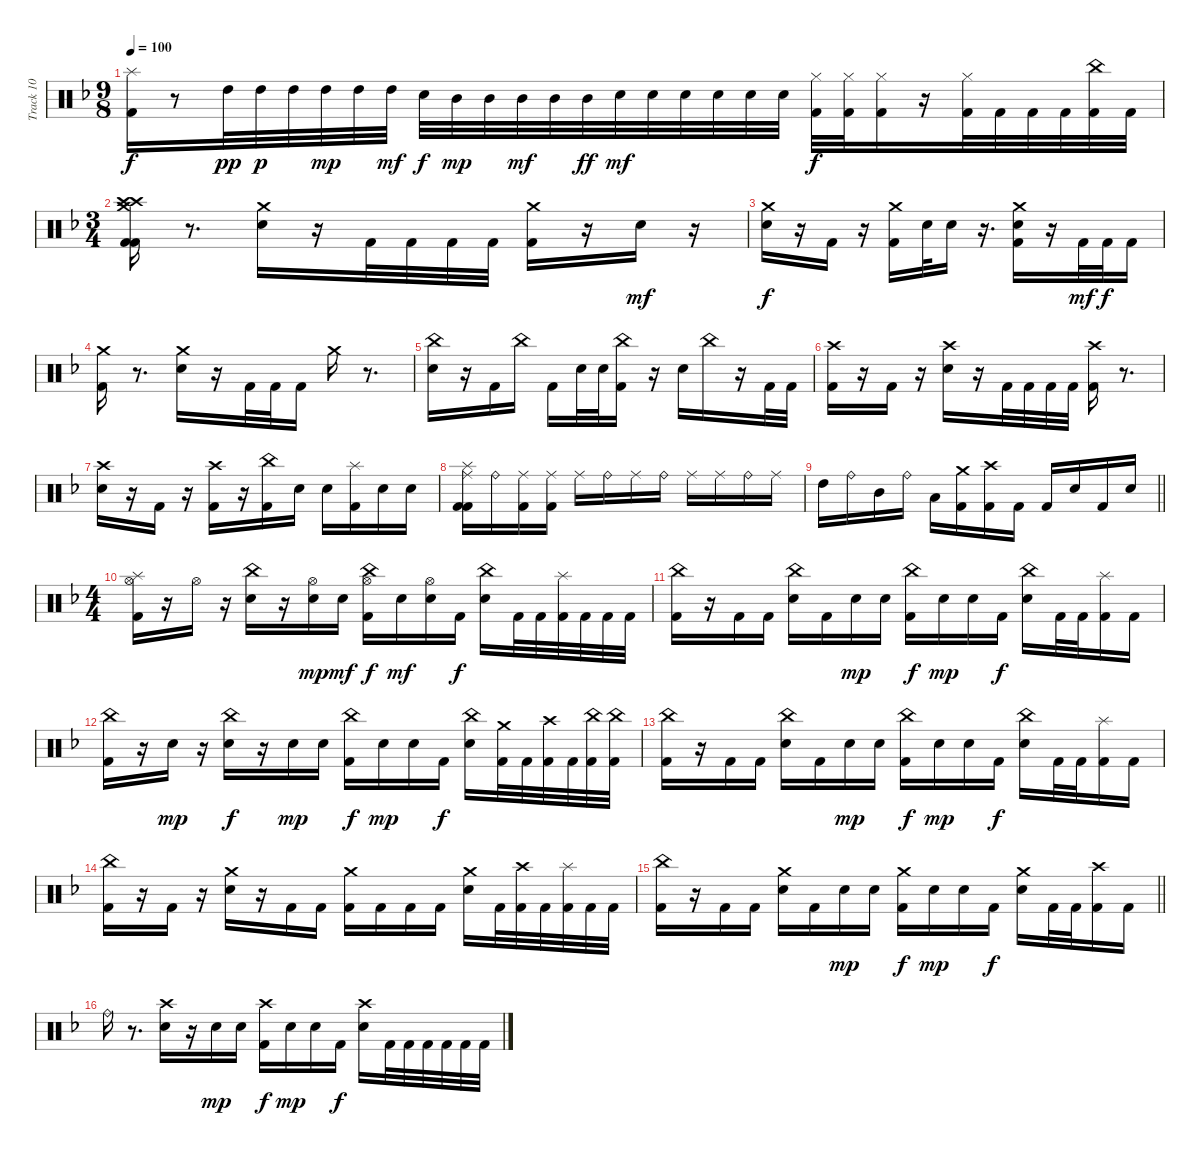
\track ("Track 10" "Track 10") {instrument percussion}
\staff {score}
\articulation defaults
\ts (9 8)
\tempo 100
\clef neutral
\ks f
("Kick (hit) 2" "Splash (hit)").16{dy f} r.8 "High Tom (hit)".32{dy pp} "High Tom (hit)".32{dy p} "High Tom (hit)".32 "High Tom (hit)".32{dy mp} "High Tom (hit)".32 "High Tom (hit)".32{dy mf} "Snare (hit) 2".32{dy f} "Mid Tom (hit)".32{dy mp} "Mid Tom (hit)".32 "Mid Tom (hit)".32{dy mf} "Mid Tom (hit)".32 "Mid Tom (hit)".32{dy ff} "Snare (hit) 2".32{dy mf} "Snare (hit) 2".32 "Snare (hit) 2".32 "Snare (hit) 2".32 "Snare (hit) 2".32 "Snare (hit) 2".32 ("Kick (hit) 2" "Hi-Hat (closed)").32{dy f} ("Kick (hit) 2" "Hi-Hat (closed)").32 ("Kick (hit) 2" "Hi-Hat (closed)").16 r.16 ("Kick (hit) 2" "Hi-Hat (closed)").32 "Kick (hit) 2".32 "Kick (hit) 2".32 "Kick (hit) 2".32 ("Kick (hit) 2" "China (hit)").32 "Kick (hit) 2".32 |
\ts (3 4)
("Kick (hit) 2" "Kick (hit) 2" "Crash high (hit)" "Crash high (hit)" "Crash medium (hit)").16 r.8{d} ("Snare (hit) 2" "Crash medium (hit)").16 r.16 "Kick (hit) 2".32 "Kick (hit) 2".32 "Kick (hit) 2".32 "Kick (hit) 2".32 ("Kick (hit) 2" "Crash medium (hit)").16 r.16 "Snare (hit) 2".16{dy mf} r.16 |
("Snare (hit) 2" "Crash medium (hit)").16{dy f} r.16 "Kick (hit) 2".16 r.16 ("Kick (hit) 2" "Crash medium (hit)").16 "Snare (hit) 2".32 "Snare (hit) 2".16 r.16{d} ("Kick (hit) 2" "Snare (hit) 2" "Crash medium (hit)").16 r.16 "Kick (hit) 2".32{dy mf} "Kick (hit) 2".32{dy f} "Kick (hit) 2".16 |
("Kick (hit) 2" "Crash medium (hit)").16 r.8{d} ("Snare (hit) 2" "Crash medium (hit)").16 r.16 "Kick (hit) 2".32 "Kick (hit) 2".32 "Kick (hit) 2".16 "Crash medium (hit)".16 r.8{d} |
("Snare (hit) 2" "China (hit)").16 r.16 "Kick (hit) 2".16 "China (hit)".16 "Kick (hit) 2".16 "Snare (hit) 2".32 "Snare (hit) 2".32 ("Kick (hit) 2" "China (hit)").16 r.16 "Snare (hit) 2".16 "China (hit)".16 r.16 "Kick (hit) 2".32 "Kick (hit) 2".32 |
("Kick (hit) 2" "Crash high (hit)").16 r.16 "Kick (hit) 2".16 r.16 ("Snare (hit) 2" "Crash high (hit)").16 r.16 "Kick (hit) 2".32 "Kick (hit) 2".32 "Kick (hit) 2".32 "Kick (hit) 2".32 ("Kick (hit) 2" "Crash high (hit)").16 r.8{d} |
("Snare (hit) 2" "Crash high (hit)").16 r.16 "Kick (hit) 2".16 r.16 ("Kick (hit) 2" "Crash high (hit)").16 r.16 ("Kick (hit) 2" "China (hit)").16 "Snare (hit) 2".16 "Snare (hit) 2".16 ("Kick (hit) 2" "Splash (hit)").16 "Snare (hit) 2".16 "Snare (hit) 2".16 |
("Kick (hit) 2" "Kick (hit) 2" "Ride (middle)" "Splash (hit)").16 "Ride (bell)".16 ("Kick (hit) 2" "Ride (middle)").16 ("Kick (hit) 2" "Ride (middle)").16 "Ride (middle)".16 "Ride (bell)".16 "Ride (middle)".16 "Ride (bell)".16 "Ride (middle)".16 "Ride (middle)".16 "Ride (bell)".16 "Ride (middle)".16 |
\barLineRight lightlight "High Tom (hit)".16 "Ride (bell)".16 "Mid Tom (hit)".16 "Ride (bell)".16 "Low Floor Tom (hit)".16
("Kick (hit) 2" "Crash medium (hit)").16 ("Kick (hit) 2" "Crash high (hit)").16 "Kick (hit) 2".16 "Kick (hit) 2".16 "Snare (hit) 2".16 "Kick (hit) 2".16 "Snare (hit) 2".16 |
\ts (4 4)
("Kick (hit) 2" "Hi-Hat (open)" "Splash (hit)").16 r.16 "Hi-Hat (open)".16 r.16 ("Snare (hit) 2" "China (hit)").16 r.16 ("Snare (hit) 2" "Hi-Hat (open)").16{dy mp} "Snare (hit) 2".16{dy mf} ("Kick (hit) 2" "Hi-Hat (open)" "China (hit)").16{dy f} "Snare (hit) 2".16{dy mf} ("Snare (hit) 2" "Hi-Hat (open)").16 "Kick (hit) 2".16{dy f} ("Snare (hit) 2" "China (hit)").16 "Kick (hit) 2".32 "Kick (hit) 2".32 ("Kick (hit) 2" "Splash (hit)").32 "Kick (hit) 2".32 "Kick (hit) 2".32 "Kick (hit) 2".32 |
("Kick (hit) 2" "China (hit)").16 r.16 "Kick (hit) 2".16 "Kick (hit) 2".16 ("Snare (hit) 2" "China (hit)").16 "Kick (hit) 2".16 "Snare (hit) 2".16{dy mp} "Snare (hit) 2".16 ("Kick (hit) 2" "China (hit)").16{dy f} "Snare (hit) 2".16{dy mp} "Snare (hit) 2".16 "Kick (hit) 2".16{dy f} ("Snare (hit) 2" "China (hit)").16 "Kick (hit) 2".32 "Kick (hit) 2".32 ("Kick (hit) 2" "Splash (hit)").16 "Kick (hit) 2".16 |
("Kick (hit) 2" "China (hit)").16 r.16 "Snare (hit) 2".16{dy mp} r.16 ("Snare (hit) 2" "China (hit)").16{dy f} r.16 "Snare (hit) 2".16{dy mp} "Snare (hit) 2".16 ("Kick (hit) 2" "China (hit)").16{dy f} "Snare (hit) 2".16{dy mp} "Snare (hit) 2".16 "Kick (hit) 2".16{dy f} ("Snare (hit) 2" "China (hit)").16 ("Kick (hit) 2" "Crash medium (hit)").32 "Kick (hit) 2".32 ("Kick (hit) 2" "Crash high (hit)").32 "Kick (hit) 2".32 ("Kick (hit) 2" "China (hit)").32 ("Kick (hit) 2" "China (hit)").32 |
("Kick (hit) 2" "China (hit)").16 r.16 "Kick (hit) 2".16 "Kick (hit) 2".16 ("Snare (hit) 2" "China (hit)").16 "Kick (hit) 2".16 "Snare (hit) 2".16{dy mp} "Snare (hit) 2".16 ("Kick (hit) 2" "China (hit)").16{dy f} "Snare (hit) 2".16{dy mp} "Snare (hit) 2".16 "Kick (hit) 2".16{dy f} ("Snare (hit) 2" "China (hit)").16 "Kick (hit) 2".32 "Kick (hit) 2".32 ("Kick (hit) 2" "Splash (hit)").16 "Kick (hit) 2".16 |
("Kick (hit) 2" "China (hit)").16 r.16 "Kick (hit) 2".16 r.16 ("Snare (hit) 2" "Crash medium (hit)").16 r.16 "Kick (hit) 2".16 "Kick (hit) 2".16 ("Kick (hit) 2" "Crash medium (hit)").16 "Kick (hit) 2".16 "Kick (hit) 2".16 "Kick (hit) 2".16 ("Snare (hit) 2" "Crash medium (hit)").16 "Kick (hit) 2".32 ("Kick (hit) 2" "Crash high (hit)").32 "Kick (hit) 2".32 ("Kick (hit) 2" "Splash (hit)").32 "Kick (hit) 2".32 "Kick (hit) 2".32 |
\barLineRight lightlight
("Kick (hit) 2" "China (hit)").16 r.16 "Kick (hit) 2".16 "Kick (hit) 2".16 ("Snare (hit) 2" "Crash medium (hit)").16 "Kick (hit) 2".16 "Snare (hit) 2".16{dy mp} "Snare (hit) 2".16 ("Kick (hit) 2" "Crash medium (hit)").16{dy f} "Snare (hit) 2".16{dy mp} "Snare (hit) 2".16 "Kick (hit) 2".16{dy f} ("Snare (hit) 2" "Crash medium (hit)").16 "Kick (hit) 2".32 "Kick (hit) 2".32 ("Kick (hit) 2" "Crash high (hit)").16 "Kick (hit) 2".16 |
"Ride (bell)".16 r.8{d} ("Snare (hit) 2" "Crash high (hit)").16 r.16 "Snare (hit) 2".16{dy mp} "Snare (hit) 2".16 ("Kick (hit) 2" "Crash high (hit)").16{dy f} "Snare (hit) 2".16{dy mp} "Snare (hit) 2".16 "Kick (hit) 2".16{dy f} ("Snare (hit) 2" "Crash high (hit)").16 "Kick (hit) 2".32 "Kick (hit) 2".32 "Kick (hit) 2".32 "Kick (hit) 2".32 "Kick (hit) 2".32 "Kick (hit) 2".32
